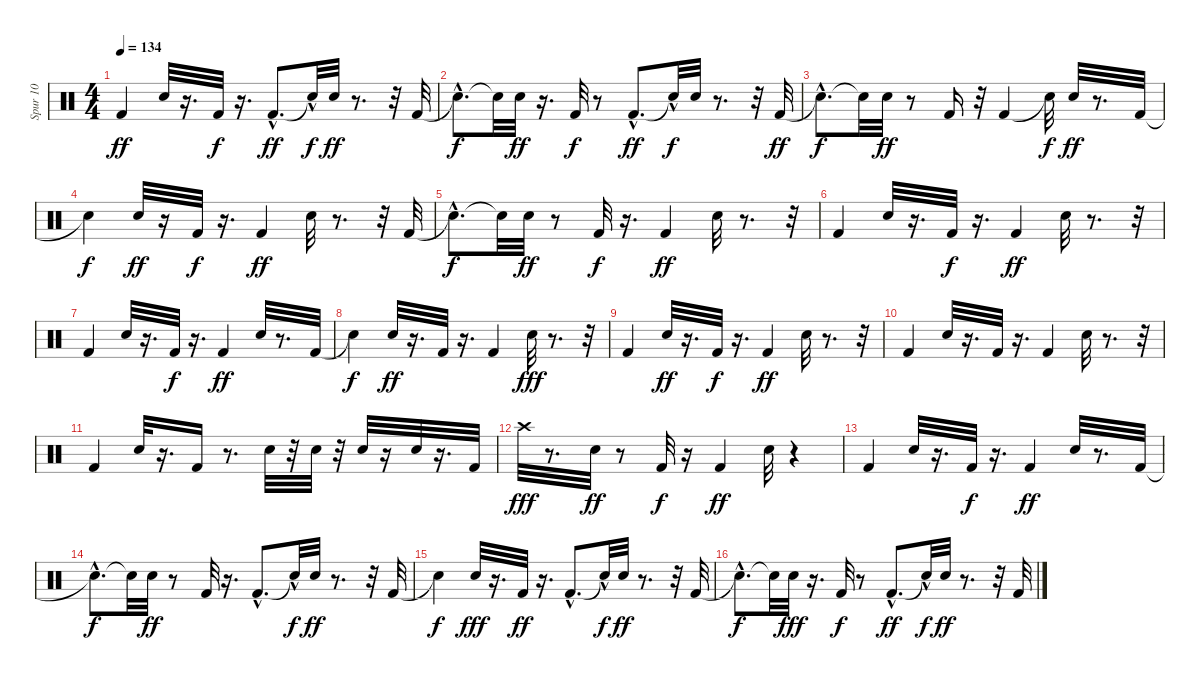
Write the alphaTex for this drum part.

\track ("Spur 10" "Spur 10") {instrument percussion}
\staff {score}
\articulation defaults
\ts (4 4)
\tempo 134
\clef neutral
\ks c "Kick (hit) 2".4{dy ff} "Electric Snare (hit)".32
r.16{d} "Kick (hit) 2".32{dy f} r.16{d} "Kick (hit) 2"{hac}.8{d dy ff} "Snare (hit)"{hac t}.32{dy f} "Electric Snare (hit)".32{dy ff} r.8{d} r.32 "Kick (hit) 2".32 |
"Snare (hit)"{hac t}.8{d dy f} "Snare (hit)"{t}.32 "Electric Snare (hit)".32{dy ff} r.16{d} "Kick (hit) 2".32{dy f} r.8 "Kick (hit) 2"{hac}.8{d dy ff} "Snare (hit)"{hac t}.32{dy f} "Electric Snare (hit)".32 r.8{d} r.32 "Kick (hit) 2".32{dy ff} |
"Snare (hit)"{hac t}.8{d dy f} "Snare (hit)"{t}.32 "Electric Snare (hit)".32{dy ff} r.8 "Kick (hit) 2".16 r.32 "Kick (hit) 2".4 "Snare (hit)"{t}.32{dy f} "Electric Snare (hit)".32{dy ff} r.8{d} "Kick (hit) 2".32 |
"Snare (hit)"{t}.4{dy f} "Electric Snare (hit)".32{dy ff} r.16 "Kick (hit) 2".32{dy f} r.16{d} "Kick (hit) 2".4{dy ff} "Electric Snare (hit)".32 r.8{d} r.32 "Kick (hit) 2".32 |
"Snare (hit)"{hac t}.8{d dy f} "Snare (hit)"{t}.32 "Electric Snare (hit)".32{dy ff} r.8 "Kick (hit) 2".32{dy f} r.16{d} "Kick (hit) 2".4{dy ff} "Electric Snare (hit)".32 r.8{d} r.32 |
"Kick (hit) 2".4 "Electric Snare (hit)".32 r.16{d} "Kick (hit) 2".32{dy f} r.16{d} "Kick (hit) 2".4{dy ff} "Electric Snare (hit)".32 r.8{d} r.32 |
"Kick (hit) 2".4 "Electric Snare (hit)".32 r.16{d} "Kick (hit) 2".32{dy f} r.16{d} "Kick (hit) 2".4{dy ff} "Electric Snare (hit)".32 r.8{d} "Kick (hit) 2".32 |
"Snare (hit)"{t}.4{dy f} "Electric Snare (hit)".32{dy ff} r.16{d} "Kick (hit) 2".32 r.16{d} "Kick (hit) 2".4 "Electric Snare (hit)".32{dy fff} r.8{d} r.32 |
"Kick (hit) 2".4 "Electric Snare (hit)".32{dy ff} r.16{d} "Kick (hit) 2".32{dy f} r.16{d} "Kick (hit) 2".4{dy ff} "Electric Snare (hit)".32 r.8{d} r.32 |
"Kick (hit) 2".4 "Electric Snare (hit)".32 r.16{d} "Kick (hit) 2".32 r.16{d} "Kick (hit) 2".4 "Electric Snare (hit)".32 r.8{d} r.32 |
"Kick (hit) 2".4 "Electric Snare (hit)".32 r.16{d} "Kick (hit) 2".16 r.8{d} "Electric Snare (hit)".32 r.32 "Electric Snare (hit)".32 r.32 "Electric Snare (hit)".32 r.16 "Electric Snare (hit)".32 r.16{d} "Kick (hit) 2".32 |
"Crash high (hit)".32{dy fff} r.8{d} "Electric Snare (hit)".32{dy ff} r.8 "Kick (hit) 2".32{dy f} r.16 "Kick (hit) 2".4{dy ff} "Electric Snare (hit)".32 r.4 |
"Kick (hit) 2".4 "Electric Snare (hit)".32 r.16{d} "Kick (hit) 2".32{dy f} r.16{d} "Kick (hit) 2".4{dy ff} "Electric Snare (hit)".32 r.8{d} "Kick (hit) 2".32 |
"Snare (hit)"{hac t}.8{d dy f} "Snare (hit)"{t}.32 "Electric Snare (hit)".32{dy ff} r.8 "Kick (hit) 2".32 r.16{d} "Kick (hit) 2"{hac}.8{d} "Snare (hit)"{hac t}.32{dy f} "Electric Snare (hit)".32{dy ff} r.8{d} r.32 "Kick (hit) 2".32 |
"Snare (hit)"{t}.4{dy f} "Electric Snare (hit)".32{dy fff} r.16{d} "Kick (hit) 2".32{dy ff} r.16{d} "Kick (hit) 2"{hac}.8{d} "Snare (hit)"{hac t}.32{dy f} "Electric Snare (hit)".32{dy ff} r.8{d} r.32 "Kick (hit) 2".32 |
"Snare (hit)"{hac t}.8{d dy f} "Snare (hit)"{t}.32 "Electric Snare (hit)".32{dy fff} r.16{d} "Kick (hit) 2".32{dy f} r.8 "Kick (hit) 2"{hac}.8{d dy ff} "Snare (hit)"{hac t}.32{dy f} "Electric Snare (hit)".32{dy ff} r.8{d} r.32 "Kick (hit) 2".32
